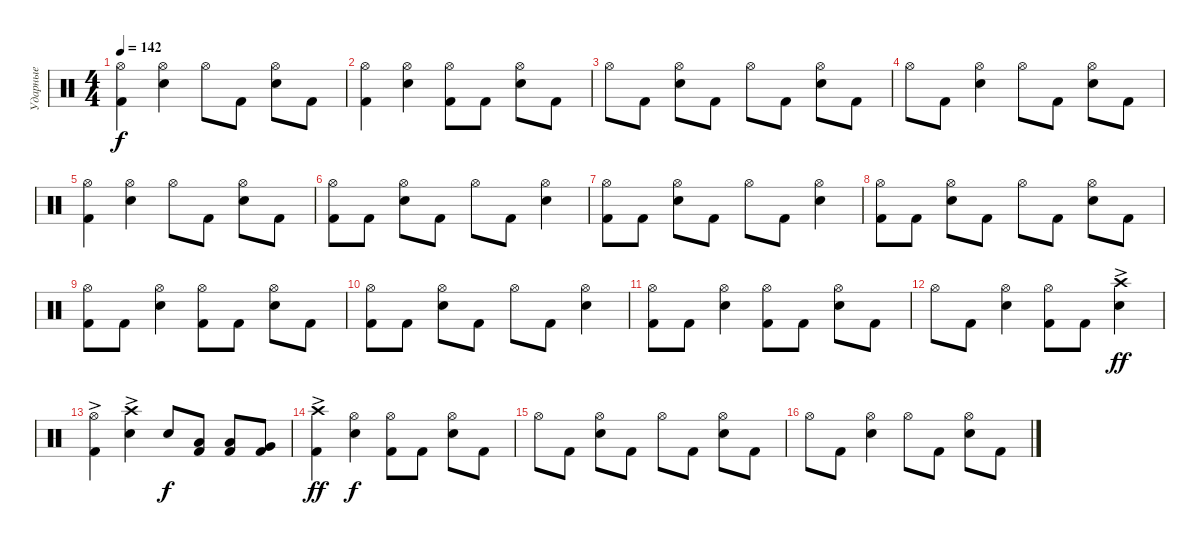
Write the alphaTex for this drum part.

\track ("Ударные" "Ударные") {instrument percussion}
\staff {score}
\articulation defaults
\ts (4 4)
\tempo 142
\clef neutral
\ks c
("Kick (hit) 2" "Hi-Hat (open)").4{dy f} ("Snare (hit) 2" "Hi-Hat (open)").4 "Hi-Hat (open)".8 "Kick (hit) 2".8 ("Snare (hit) 2" "Hi-Hat (open)").8 "Kick (hit) 2".8 |
("Kick (hit) 2" "Hi-Hat (open)").4 ("Snare (hit) 2" "Hi-Hat (open)").4 ("Kick (hit) 2" "Hi-Hat (open)").8 "Kick (hit) 2".8 ("Snare (hit) 2" "Hi-Hat (open)").8 "Kick (hit) 2".8 |
"Hi-Hat (open)".8 "Kick (hit) 2".8 ("Snare (hit) 2" "Hi-Hat (open)").8 "Kick (hit) 2".8 "Hi-Hat (open)".8 "Kick (hit) 2".8 ("Snare (hit) 2" "Hi-Hat (open)").8 "Kick (hit) 2".8 |
"Hi-Hat (open)".8 "Kick (hit) 2".8 ("Snare (hit) 2" "Hi-Hat (open)").4 "Hi-Hat (open)".8 "Kick (hit) 2".8 ("Snare (hit) 2" "Hi-Hat (open)").8 "Kick (hit) 2".8 |
("Kick (hit) 2" "Hi-Hat (open)").4 ("Snare (hit) 2" "Hi-Hat (open)").4 "Hi-Hat (open)".8 "Kick (hit) 2".8 ("Snare (hit) 2" "Hi-Hat (open)").8 "Kick (hit) 2".8 |
("Kick (hit) 2" "Hi-Hat (open)").8 "Kick (hit) 2".8 ("Snare (hit) 2" "Hi-Hat (open)").8 "Kick (hit) 2".8 "Hi-Hat (open)".8 "Kick (hit) 2".8 ("Snare (hit) 2" "Hi-Hat (open)").4 |
("Kick (hit) 2" "Hi-Hat (open)").8 "Kick (hit) 2".8 ("Snare (hit) 2" "Hi-Hat (open)").8 "Kick (hit) 2".8 "Hi-Hat (open)".8 "Kick (hit) 2".8 ("Snare (hit) 2" "Hi-Hat (open)").4 |
("Kick (hit) 2" "Hi-Hat (open)").8 "Kick (hit) 2".8 ("Snare (hit) 2" "Hi-Hat (open)").8 "Kick (hit) 2".8 "Hi-Hat (open)".8 "Kick (hit) 2".8 ("Snare (hit) 2" "Hi-Hat (open)").8 "Kick (hit) 2".8 |
("Kick (hit) 2" "Hi-Hat (open)").8 "Kick (hit) 2".8 ("Snare (hit) 2" "Hi-Hat (open)").4 ("Kick (hit) 2" "Hi-Hat (open)").8 "Kick (hit) 2".8 ("Snare (hit) 2" "Hi-Hat (open)").8 "Kick (hit) 2".8 |
("Kick (hit) 2" "Hi-Hat (open)").8 "Kick (hit) 2".8 ("Snare (hit) 2" "Hi-Hat (open)").8 "Kick (hit) 2".8 "Hi-Hat (open)".8 "Kick (hit) 2".8 ("Snare (hit) 2" "Hi-Hat (open)").4 |
("Kick (hit) 2" "Hi-Hat (open)").8 "Kick (hit) 2".8 ("Snare (hit) 2" "Hi-Hat (open)").4 ("Kick (hit) 2" "Hi-Hat (open)").8 "Kick (hit) 2".8 ("Snare (hit) 2" "Hi-Hat (open)").8 "Kick (hit) 2".8 |
"Hi-Hat (open)".8 "Kick (hit) 2".8 ("Snare (hit) 2" "Hi-Hat (open)").4 ("Kick (hit) 2" "Hi-Hat (open)").8 "Kick (hit) 2".8 ("Snare (hit) 2" "Crash high (hit)"{ac}).4{dy ff} |
("Kick (hit) 2" "Hi-Hat (open)"{ac}).4 ("Snare (hit) 2" "Crash high (hit)"{ac}).4 "Snare (hit) 2".8{dy f} ("Kick (hit) 2" "Low Tom (hit)").8 ("Kick (hit) 2" "Low Tom (hit)").8 ("Kick (hit) 2" "Very Low Tom (hit)").8 |
("Kick (hit) 2" "Crash high (hit)"{ac}).4{dy ff} ("Snare (hit) 2" "Hi-Hat (open)").4{dy f} ("Kick (hit) 2" "Hi-Hat (open)").8 "Kick (hit) 2".8 ("Snare (hit) 2" "Hi-Hat (open)").8 "Kick (hit) 2".8 |
"Hi-Hat (open)".8 "Kick (hit) 2".8 ("Snare (hit) 2" "Hi-Hat (open)").8 "Kick (hit) 2".8 "Hi-Hat (open)".8 "Kick (hit) 2".8 ("Snare (hit) 2" "Hi-Hat (open)").8 "Kick (hit) 2".8 |
"Hi-Hat (open)".8 "Kick (hit) 2".8 ("Snare (hit) 2" "Hi-Hat (open)").4 "Hi-Hat (open)".8 "Kick (hit) 2".8 ("Snare (hit) 2" "Hi-Hat (open)").8 "Kick (hit) 2".8
